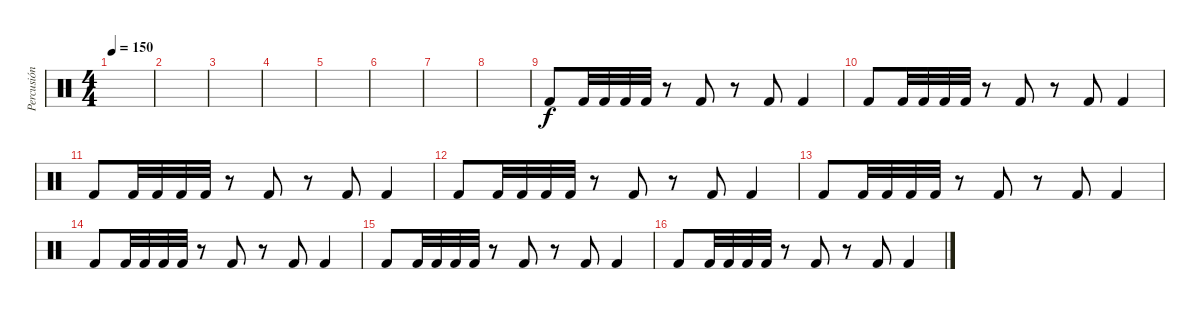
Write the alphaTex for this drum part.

\track ("Percusión" "Percusión") {instrument percussion}
\staff {score}
\articulation defaults
\ts (4 4)
\tempo 150
\clef neutral
\ks c
|
|
|
|
|
|
|
|
"Kick (hit) 2".8 "Kick (hit) 2".32 "Kick (hit) 2".32 "Kick (hit) 2".32 "Kick (hit) 2".32 r.8 "Kick (hit) 2".8 r.8 "Kick (hit) 2".8 "Kick (hit) 2".4 |
"Kick (hit) 2".8 "Kick (hit) 2".32 "Kick (hit) 2".32 "Kick (hit) 2".32 "Kick (hit) 2".32 r.8 "Kick (hit) 2".8 r.8 "Kick (hit) 2".8 "Kick (hit) 2".4 |
"Kick (hit) 2".8 "Kick (hit) 2".32 "Kick (hit) 2".32 "Kick (hit) 2".32 "Kick (hit) 2".32 r.8 "Kick (hit) 2".8 r.8 "Kick (hit) 2".8 "Kick (hit) 2".4 |
"Kick (hit) 2".8 "Kick (hit) 2".32 "Kick (hit) 2".32 "Kick (hit) 2".32 "Kick (hit) 2".32 r.8 "Kick (hit) 2".8 r.8 "Kick (hit) 2".8 "Kick (hit) 2".4 |
"Kick (hit) 2".8 "Kick (hit) 2".32 "Kick (hit) 2".32 "Kick (hit) 2".32 "Kick (hit) 2".32 r.8 "Kick (hit) 2".8 r.8 "Kick (hit) 2".8 "Kick (hit) 2".4 |
"Kick (hit) 2".8 "Kick (hit) 2".32 "Kick (hit) 2".32 "Kick (hit) 2".32 "Kick (hit) 2".32 r.8 "Kick (hit) 2".8 r.8 "Kick (hit) 2".8 "Kick (hit) 2".4 |
"Kick (hit) 2".8 "Kick (hit) 2".32 "Kick (hit) 2".32 "Kick (hit) 2".32 "Kick (hit) 2".32 r.8 "Kick (hit) 2".8 r.8 "Kick (hit) 2".8 "Kick (hit) 2".4 |
"Kick (hit) 2".8 "Kick (hit) 2".32 "Kick (hit) 2".32 "Kick (hit) 2".32 "Kick (hit) 2".32 r.8 "Kick (hit) 2".8 r.8 "Kick (hit) 2".8 "Kick (hit) 2".4
